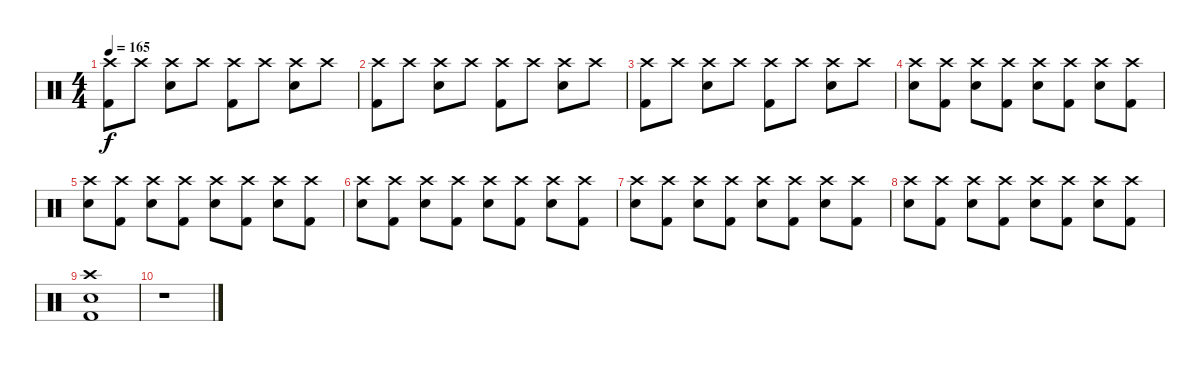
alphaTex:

\track "" {instrument percussion}
\staff {score}
\articulation defaults
\ts (4 4)
\tempo 165
\clef neutral
\ks c
("Crash high (hit)" "Kick (hit) 2").8{dy f} "Crash high (hit)".8 ("Crash high (hit)" "Electric Snare (hit)").8 "Crash high (hit)".8 ("Crash high (hit)" "Kick (hit) 2").8 "Crash high (hit)".8 ("Crash high (hit)" "Electric Snare (hit)").8 "Crash high (hit)".8 |
("Crash high (hit)" "Kick (hit) 2").8 "Crash high (hit)".8 ("Crash high (hit)" "Electric Snare (hit)").8 "Crash high (hit)".8 ("Crash high (hit)" "Kick (hit) 2").8 "Crash high (hit)".8 ("Crash high (hit)" "Electric Snare (hit)").8 "Crash high (hit)".8 |
("Crash high (hit)" "Kick (hit) 2").8 "Crash high (hit)".8 ("Crash high (hit)" "Electric Snare (hit)").8 "Crash high (hit)".8 ("Crash high (hit)" "Kick (hit) 2").8 "Crash high (hit)".8 ("Crash high (hit)" "Electric Snare (hit)").8 "Crash high (hit)".8 |
("Crash high (hit)" "Electric Snare (hit)").8 ("Crash high (hit)" "Kick (hit) 2").8 ("Crash high (hit)" "Electric Snare (hit)").8 ("Crash high (hit)" "Kick (hit) 2").8 ("Crash high (hit)" "Electric Snare (hit)").8 ("Crash high (hit)" "Kick (hit) 2").8 ("Crash high (hit)" "Electric Snare (hit)").8 ("Crash high (hit)" "Kick (hit) 2").8 |
("Crash high (hit)" "Electric Snare (hit)").8 ("Crash high (hit)" "Kick (hit) 2").8 ("Crash high (hit)" "Electric Snare (hit)").8 ("Crash high (hit)" "Kick (hit) 2").8 ("Crash high (hit)" "Electric Snare (hit)").8 ("Crash high (hit)" "Kick (hit) 2").8 ("Crash high (hit)" "Electric Snare (hit)").8 ("Crash high (hit)" "Kick (hit) 2").8 |
("Crash high (hit)" "Electric Snare (hit)").8 ("Crash high (hit)" "Kick (hit) 2").8 ("Crash high (hit)" "Electric Snare (hit)").8 ("Crash high (hit)" "Kick (hit) 2").8 ("Crash high (hit)" "Electric Snare (hit)").8 ("Crash high (hit)" "Kick (hit) 2").8 ("Crash high (hit)" "Electric Snare (hit)").8 ("Crash high (hit)" "Kick (hit) 2").8 |
("Crash high (hit)" "Electric Snare (hit)").8 ("Crash high (hit)" "Kick (hit) 2").8 ("Crash high (hit)" "Electric Snare (hit)").8 ("Crash high (hit)" "Kick (hit) 2").8 ("Crash high (hit)" "Electric Snare (hit)").8 ("Crash high (hit)" "Kick (hit) 2").8 ("Crash high (hit)" "Electric Snare (hit)").8 ("Crash high (hit)" "Kick (hit) 2").8 |
("Crash high (hit)" "Electric Snare (hit)").8 ("Crash high (hit)" "Kick (hit) 2").8 ("Crash high (hit)" "Electric Snare (hit)").8 ("Crash high (hit)" "Kick (hit) 2").8 ("Crash high (hit)" "Electric Snare (hit)").8 ("Crash high (hit)" "Kick (hit) 2").8 ("Crash high (hit)" "Electric Snare (hit)").8 ("Crash high (hit)" "Kick (hit) 2").8 |
("Crash high (hit)" "Electric Snare (hit)" "Kick (hit) 2").1 |
r.1
